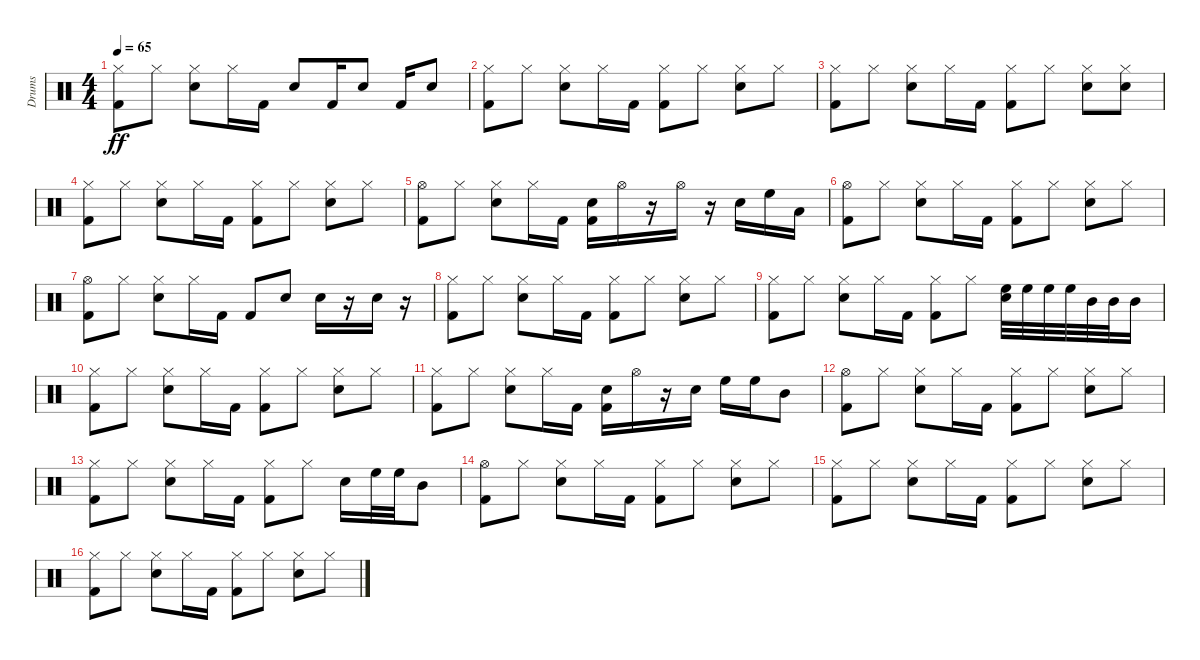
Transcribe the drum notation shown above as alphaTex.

\track ("Drums" "Drums") {instrument percussion}
\staff {score}
\articulation defaults
\ts (4 4)
\tempo 65
\clef neutral
\ks c
("Hi-Hat (closed)" "Kick (hit) 2").8{dy ff} "Hi-Hat (closed)".8 ("Snare (hit) 2" "Hi-Hat (closed)").8 "Hi-Hat (closed)".16 "Kick (hit) 2".16 "Snare (hit) 2".8 "Kick (hit) 2".16 "Snare (hit) 2".8 "Kick (hit) 2".16 "Snare (hit) 2".8 |
("Hi-Hat (closed)" "Kick (hit) 2").8 "Hi-Hat (closed)".8 ("Snare (hit) 2" "Hi-Hat (closed)").8 "Hi-Hat (closed)".16 "Kick (hit) 2".16 ("Hi-Hat (closed)" "Kick (hit) 2").8 "Hi-Hat (closed)".8 ("Hi-Hat (closed)" "Snare (hit) 2").8 "Hi-Hat (closed)".8 |
("Hi-Hat (closed)" "Kick (hit) 2").8 "Hi-Hat (closed)".8 ("Snare (hit) 2" "Hi-Hat (closed)").8 "Hi-Hat (closed)".16 "Kick (hit) 2".16 ("Hi-Hat (closed)" "Kick (hit) 2").8 "Hi-Hat (closed)".8 ("Hi-Hat (closed)" "Snare (hit) 2").8 ("Snare (hit) 2" "Hi-Hat (closed)").8 |
("Hi-Hat (closed)" "Kick (hit) 2").8 "Hi-Hat (closed)".8 ("Snare (hit) 2" "Hi-Hat (closed)").8 "Hi-Hat (closed)".16 "Kick (hit) 2".16 ("Hi-Hat (closed)" "Kick (hit) 2").8 "Hi-Hat (closed)".8 ("Hi-Hat (closed)" "Snare (hit) 2").8 "Hi-Hat (closed)".8 |
("Hi-Hat (open)" "Kick (hit) 2").8 "Hi-Hat (closed)".8 ("Snare (hit) 2" "Hi-Hat (closed)").8 "Hi-Hat (closed)".16 "Kick (hit) 2".16 ("Snare (hit) 2" "Kick (hit) 2").16 "Hi-Hat (open)".16 r.16 "Hi-Hat (open)".16 r.16 "Snare (hit) 2".16 "High Floor Tom (hit)".16 "Low Tom (hit)".16 |
("Hi-Hat (open)" "Kick (hit) 2").8 "Hi-Hat (closed)".8 ("Snare (hit) 2" "Hi-Hat (closed)").8 "Hi-Hat (closed)".16 "Kick (hit) 2".16 ("Hi-Hat (closed)" "Kick (hit) 2").8 "Hi-Hat (closed)".8 ("Hi-Hat (closed)" "Snare (hit) 2").8 "Hi-Hat (closed)".8 |
("Hi-Hat (open)" "Kick (hit) 2").8 "Hi-Hat (closed)".8 ("Snare (hit) 2" "Hi-Hat (closed)").8 "Hi-Hat (closed)".16 "Kick (hit) 2".16 "Kick (hit) 2".8 "Snare (hit) 2".8 "Snare (hit) 2".16 r.16 "Snare (hit) 2".16 r.16 |
("Hi-Hat (closed)" "Kick (hit) 2").8 "Hi-Hat (closed)".8 ("Snare (hit) 2" "Hi-Hat (closed)").8 "Hi-Hat (closed)".16 "Kick (hit) 2".16 ("Hi-Hat (closed)" "Kick (hit) 2").8 "Hi-Hat (closed)".8 ("Hi-Hat (closed)" "Snare (hit) 2").8 "Hi-Hat (closed)".8 |
("Hi-Hat (closed)" "Kick (hit) 2").8 "Hi-Hat (closed)".8 ("Snare (hit) 2" "Hi-Hat (closed)").8 "Hi-Hat (closed)".16 "Kick (hit) 2".16 ("Hi-Hat (closed)" "Kick (hit) 2").8 "Hi-Hat (closed)".8 ("High Floor Tom (hit)" "Snare (hit) 2").32 "High Floor Tom (hit)".32 "High Floor Tom (hit)".32 "High Floor Tom (hit)".32 "Mid Tom (hit)".32 "Mid Tom (hit)".32 "Mid Tom (hit)".16 |
("Hi-Hat (closed)" "Kick (hit) 2").8 "Hi-Hat (closed)".8 ("Snare (hit) 2" "Hi-Hat (closed)").8 "Hi-Hat (closed)".16 "Kick (hit) 2".16 ("Hi-Hat (closed)" "Kick (hit) 2").8 "Hi-Hat (closed)".8 ("Hi-Hat (closed)" "Snare (hit) 2").8 "Hi-Hat (closed)".8 |
("Hi-Hat (closed)" "Kick (hit) 2").8 "Hi-Hat (closed)".8 ("Snare (hit) 2" "Hi-Hat (closed)").8 "Hi-Hat (closed)".16 "Kick (hit) 2".16 ("Snare (hit) 2" "Kick (hit) 2").16 "Hi-Hat (open)".16 r.16 "Snare (hit) 2".16 "High Floor Tom (hit)".16 "High Floor Tom (hit)".16 "Mid Tom (hit)".8 |
("Hi-Hat (open)" "Kick (hit) 2").8 "Hi-Hat (closed)".8 ("Snare (hit) 2" "Hi-Hat (closed)").8 "Hi-Hat (closed)".16 "Kick (hit) 2".16 ("Hi-Hat (closed)" "Kick (hit) 2").8 "Hi-Hat (closed)".8 ("Hi-Hat (closed)" "Snare (hit) 2").8 "Hi-Hat (closed)".8 |
("Hi-Hat (closed)" "Kick (hit) 2").8 "Hi-Hat (closed)".8 ("Snare (hit) 2" "Hi-Hat (closed)").8 "Hi-Hat (closed)".16 "Kick (hit) 2".16 ("Hi-Hat (closed)" "Kick (hit) 2").8 "Hi-Hat (closed)".8 "Snare (hit) 2".16 "High Floor Tom (hit)".32 "High Floor Tom (hit)".32 "Mid Tom (hit)".8 |
("Hi-Hat (open)" "Kick (hit) 2").8 "Hi-Hat (closed)".8 ("Snare (hit) 2" "Hi-Hat (closed)").8 "Hi-Hat (closed)".16 "Kick (hit) 2".16 ("Hi-Hat (closed)" "Kick (hit) 2").8 "Hi-Hat (closed)".8 ("Hi-Hat (closed)" "Snare (hit) 2").8 "Hi-Hat (closed)".8 |
("Hi-Hat (closed)" "Kick (hit) 2").8 "Hi-Hat (closed)".8 ("Snare (hit) 2" "Hi-Hat (closed)").8 "Hi-Hat (closed)".16 "Kick (hit) 2".16 ("Hi-Hat (closed)" "Kick (hit) 2").8 "Hi-Hat (closed)".8 ("Hi-Hat (closed)" "Snare (hit) 2").8 "Hi-Hat (closed)".8 |
("Hi-Hat (closed)" "Kick (hit) 2").8 "Hi-Hat (closed)".8 ("Snare (hit) 2" "Hi-Hat (closed)").8 "Hi-Hat (closed)".16 "Kick (hit) 2".16 ("Hi-Hat (closed)" "Kick (hit) 2").8 "Hi-Hat (closed)".8 ("Hi-Hat (closed)" "Snare (hit) 2").8 "Hi-Hat (closed)".8
